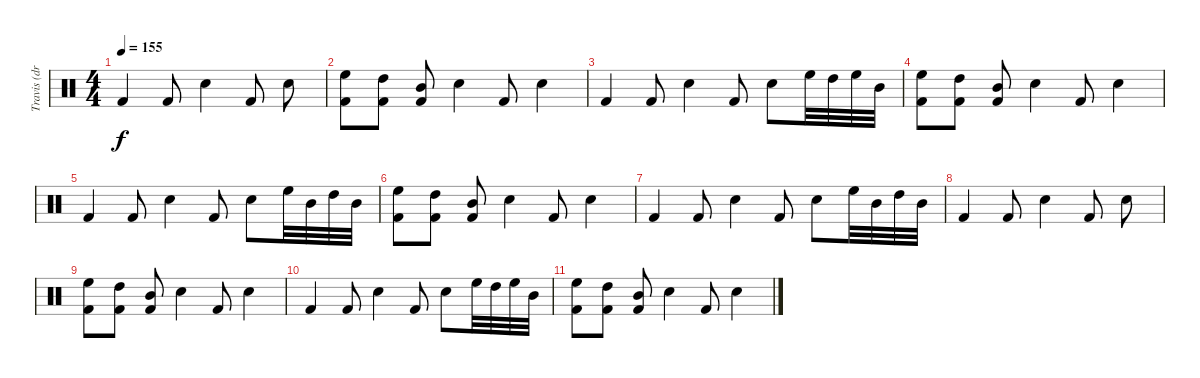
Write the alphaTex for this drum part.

\track ("Travis (drums)" "Travis (dr") {instrument percussion}
\staff {score}
\articulation defaults
\ts (4 4)
\tempo 155
\clef neutral
\ks c "Kick (hit) 2".4{dy f} "Kick (hit) 2".8 "Snare (hit) 2".4 "Kick (hit) 2".8 "Snare (hit) 2".8
|
("High Floor Tom (hit)" "Kick (hit) 2").8 ("High Tom (hit)" "Kick (hit) 2").8 ("Mid Tom (hit)" "Kick (hit) 2").8 "Snare (hit) 2".4 "Kick (hit) 2".8 "Snare (hit) 2".4 |
"Kick (hit) 2".4 "Kick (hit) 2".8 "Snare (hit) 2".4 "Kick (hit) 2".8 "Snare (hit) 2".8 "High Floor Tom (hit)".32 "High Tom (hit)".32 "High Floor Tom (hit)".32 "Mid Tom (hit)".32 |
("High Floor Tom (hit)" "Kick (hit) 2").8 ("High Tom (hit)" "Kick (hit) 2").8 ("Mid Tom (hit)" "Kick (hit) 2").8 "Snare (hit) 2".4 "Kick (hit) 2".8 "Snare (hit) 2".4 |
"Kick (hit) 2".4 "Kick (hit) 2".8 "Snare (hit) 2".4 "Kick (hit) 2".8 "Snare (hit) 2".8 "High Floor Tom (hit)".32 "Mid Tom (hit)".32 "High Tom (hit)".32 "Mid Tom (hit)".32 |
("High Floor Tom (hit)" "Kick (hit) 2").8 ("High Tom (hit)" "Kick (hit) 2").8 ("Mid Tom (hit)" "Kick (hit) 2").8 "Snare (hit) 2".4 "Kick (hit) 2".8 "Snare (hit) 2".4 |
"Kick (hit) 2".4 "Kick (hit) 2".8 "Snare (hit) 2".4 "Kick (hit) 2".8 "Snare (hit) 2".8 "High Floor Tom (hit)".32 "Mid Tom (hit)".32 "High Tom (hit)".32 "Mid Tom (hit)".32 |
"Kick (hit) 2".4 "Kick (hit) 2".8 "Snare (hit) 2".4 "Kick (hit) 2".8 "Snare (hit) 2".8 |
("High Floor Tom (hit)" "Kick (hit) 2").8 ("High Tom (hit)" "Kick (hit) 2").8 ("Mid Tom (hit)" "Kick (hit) 2").8 "Snare (hit) 2".4 "Kick (hit) 2".8 "Snare (hit) 2".4 |
"Kick (hit) 2".4 "Kick (hit) 2".8 "Snare (hit) 2".4 "Kick (hit) 2".8 "Snare (hit) 2".8 "High Floor Tom (hit)".32 "High Tom (hit)".32 "High Floor Tom (hit)".32 "Mid Tom (hit)".32 |
("High Floor Tom (hit)" "Kick (hit) 2").8 ("High Tom (hit)" "Kick (hit) 2").8 ("Mid Tom (hit)" "Kick (hit) 2").8 "Snare (hit) 2".4 "Kick (hit) 2".8 "Snare (hit) 2".4
